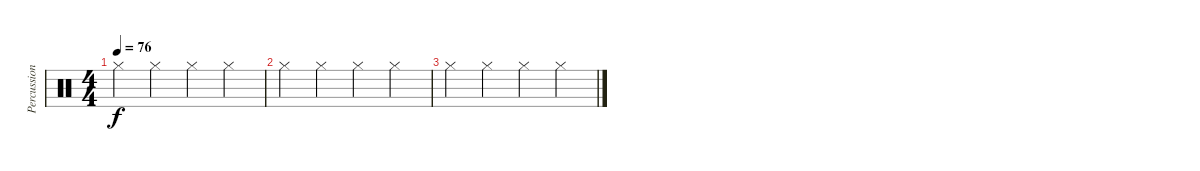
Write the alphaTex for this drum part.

\track ("Percussion" "Percussion") {instrument percussion}
\staff {score}
\articulation defaults
\ts (4 4)
\tempo 76
\clef neutral
\ks c "Hi-Hat (closed)".4{dy f} "Hi-Hat (closed)".4 "Hi-Hat (closed)".4 "Hi-Hat (closed)".4
|
"Hi-Hat (closed)".4 "Hi-Hat (closed)".4 "Hi-Hat (closed)".4 "Hi-Hat (closed)".4 |
"Hi-Hat (closed)".4 "Hi-Hat (closed)".4 "Hi-Hat (closed)".4 "Hi-Hat (closed)".4
